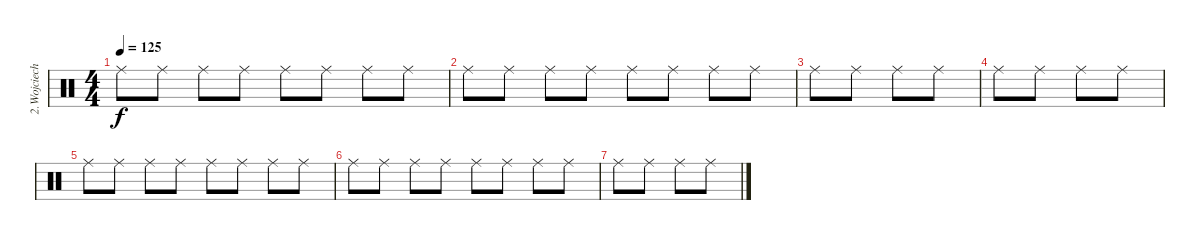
\track ("2.Wojciech Kuderski (\"Lala\")" "2.Wojciech") {instrument percussion}
\staff {score}
\articulation defaults
\ts (4 4)
\tempo 125
\clef neutral
\ks c "Ride (middle)".8{dy f} "Ride (middle)".8 "Ride (middle)".8 "Ride (middle)".8 "Ride (middle)".8 "Ride (middle)".8 "Ride (middle)".8 "Ride (middle)".8
|
"Ride (middle)".8 "Ride (middle)".8 "Ride (middle)".8 "Ride (middle)".8 "Ride (middle)".8 "Ride (middle)".8 "Ride (middle)".8 "Ride (middle)".8 |
"Ride (middle)".8 "Ride (middle)".8 "Ride (middle)".8 "Ride (middle)".8 |
"Ride (middle)".8 "Ride (middle)".8 "Ride (middle)".8 "Ride (middle)".8 |
"Ride (middle)".8 "Ride (middle)".8 "Ride (middle)".8 "Ride (middle)".8 "Ride (middle)".8 "Ride (middle)".8 "Ride (middle)".8 "Ride (middle)".8 |
"Ride (middle)".8 "Ride (middle)".8 "Ride (middle)".8 "Ride (middle)".8 "Ride (middle)".8 "Ride (middle)".8 "Ride (middle)".8 "Ride (middle)".8 |
"Ride (middle)".8 "Ride (middle)".8 "Ride (middle)".8 "Ride (middle)".8
